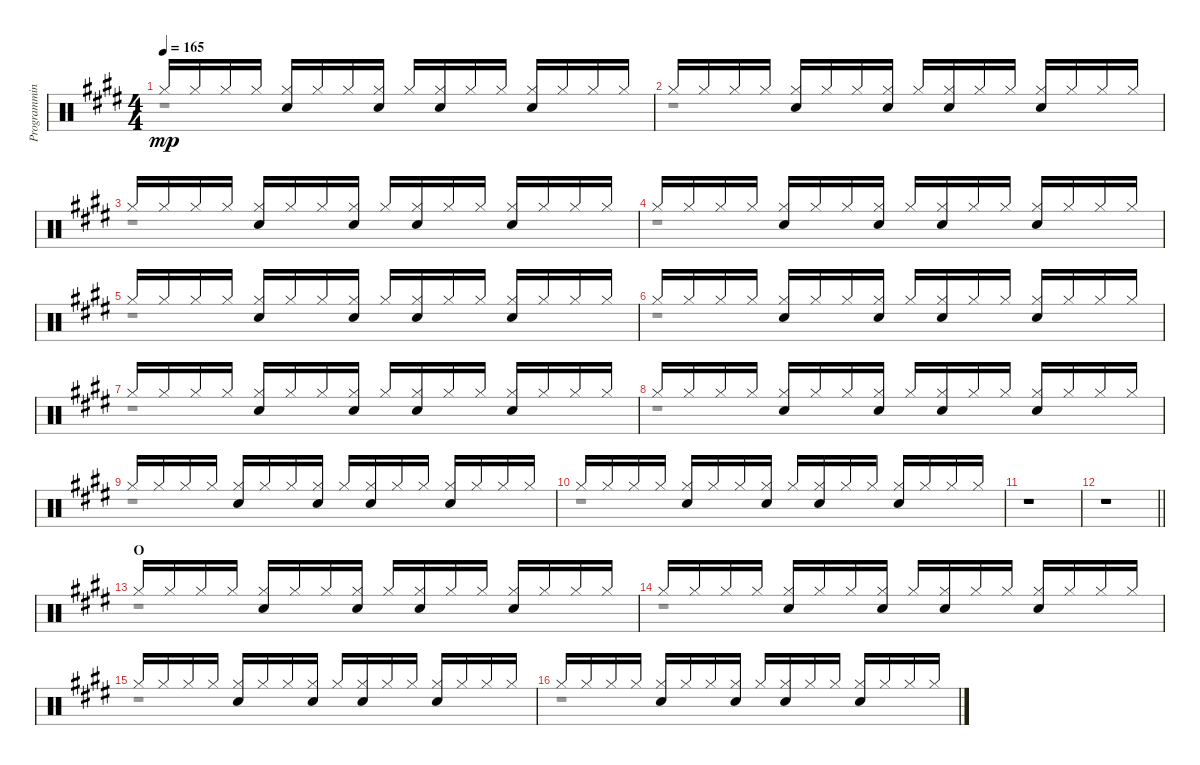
\track ("Programming I" "Programmin") {instrument percussion}
\staff {score}
\articulation defaults
\voice
\ts (4 4)
\tempo 165
\clef neutral
\ks e "Hi-Hat (closed)".16{dy mp} "Hi-Hat (closed)".16 "Hi-Hat (closed)".16 "Hi-Hat (closed)".16
("Hi-Hat (closed)" "Electric Snare (hit)").16 "Hi-Hat (closed)".16 "Hi-Hat (closed)".16 ("Hi-Hat (closed)" "Electric Snare (hit)").16 "Hi-Hat (closed)".16 ("Hi-Hat (closed)" "Electric Snare (hit)").16 "Hi-Hat (closed)".16 "Hi-Hat (closed)".16 ("Hi-Hat (closed)" "Electric Snare (hit)").16 "Hi-Hat (closed)".16 "Hi-Hat (closed)".16 "Hi-Hat (closed)".16 |
"Hi-Hat (closed)".16 "Hi-Hat (closed)".16 "Hi-Hat (closed)".16 "Hi-Hat (closed)".16 ("Hi-Hat (closed)" "Electric Snare (hit)").16 "Hi-Hat (closed)".16 "Hi-Hat (closed)".16 ("Hi-Hat (closed)" "Electric Snare (hit)").16 "Hi-Hat (closed)".16 ("Hi-Hat (closed)" "Electric Snare (hit)").16 "Hi-Hat (closed)".16 "Hi-Hat (closed)".16 ("Hi-Hat (closed)" "Electric Snare (hit)").16 "Hi-Hat (closed)".16 "Hi-Hat (closed)".16 "Hi-Hat (closed)".16 |
"Hi-Hat (closed)".16 "Hi-Hat (closed)".16 "Hi-Hat (closed)".16 "Hi-Hat (closed)".16 ("Hi-Hat (closed)" "Electric Snare (hit)").16 "Hi-Hat (closed)".16 "Hi-Hat (closed)".16 ("Hi-Hat (closed)" "Electric Snare (hit)").16 "Hi-Hat (closed)".16 ("Hi-Hat (closed)" "Electric Snare (hit)").16 "Hi-Hat (closed)".16 "Hi-Hat (closed)".16 ("Hi-Hat (closed)" "Electric Snare (hit)").16 "Hi-Hat (closed)".16 "Hi-Hat (closed)".16 "Hi-Hat (closed)".16 |
"Hi-Hat (closed)".16 "Hi-Hat (closed)".16 "Hi-Hat (closed)".16 "Hi-Hat (closed)".16 ("Hi-Hat (closed)" "Electric Snare (hit)").16 "Hi-Hat (closed)".16 "Hi-Hat (closed)".16 ("Hi-Hat (closed)" "Electric Snare (hit)").16 "Hi-Hat (closed)".16 ("Hi-Hat (closed)" "Electric Snare (hit)").16 "Hi-Hat (closed)".16 "Hi-Hat (closed)".16 ("Hi-Hat (closed)" "Electric Snare (hit)").16 "Hi-Hat (closed)".16 "Hi-Hat (closed)".16 "Hi-Hat (closed)".16 |
"Hi-Hat (closed)".16 "Hi-Hat (closed)".16 "Hi-Hat (closed)".16 "Hi-Hat (closed)".16 ("Hi-Hat (closed)" "Electric Snare (hit)").16 "Hi-Hat (closed)".16 "Hi-Hat (closed)".16 ("Hi-Hat (closed)" "Electric Snare (hit)").16 "Hi-Hat (closed)".16 ("Hi-Hat (closed)" "Electric Snare (hit)").16 "Hi-Hat (closed)".16 "Hi-Hat (closed)".16 ("Hi-Hat (closed)" "Electric Snare (hit)").16 "Hi-Hat (closed)".16 "Hi-Hat (closed)".16 "Hi-Hat (closed)".16 |
"Hi-Hat (closed)".16 "Hi-Hat (closed)".16 "Hi-Hat (closed)".16 "Hi-Hat (closed)".16 ("Hi-Hat (closed)" "Electric Snare (hit)").16 "Hi-Hat (closed)".16 "Hi-Hat (closed)".16 ("Hi-Hat (closed)" "Electric Snare (hit)").16 "Hi-Hat (closed)".16 ("Hi-Hat (closed)" "Electric Snare (hit)").16 "Hi-Hat (closed)".16 "Hi-Hat (closed)".16 ("Hi-Hat (closed)" "Electric Snare (hit)").16 "Hi-Hat (closed)".16 "Hi-Hat (closed)".16 "Hi-Hat (closed)".16 |
"Hi-Hat (closed)".16 "Hi-Hat (closed)".16 "Hi-Hat (closed)".16 "Hi-Hat (closed)".16 ("Hi-Hat (closed)" "Electric Snare (hit)").16 "Hi-Hat (closed)".16 "Hi-Hat (closed)".16 ("Hi-Hat (closed)" "Electric Snare (hit)").16 "Hi-Hat (closed)".16 ("Hi-Hat (closed)" "Electric Snare (hit)").16 "Hi-Hat (closed)".16 "Hi-Hat (closed)".16 ("Hi-Hat (closed)" "Electric Snare (hit)").16 "Hi-Hat (closed)".16 "Hi-Hat (closed)".16 "Hi-Hat (closed)".16 |
"Hi-Hat (closed)".16 "Hi-Hat (closed)".16 "Hi-Hat (closed)".16 "Hi-Hat (closed)".16 ("Hi-Hat (closed)" "Electric Snare (hit)").16 "Hi-Hat (closed)".16 "Hi-Hat (closed)".16 ("Hi-Hat (closed)" "Electric Snare (hit)").16 "Hi-Hat (closed)".16 ("Hi-Hat (closed)" "Electric Snare (hit)").16 "Hi-Hat (closed)".16 "Hi-Hat (closed)".16 ("Hi-Hat (closed)" "Electric Snare (hit)").16 "Hi-Hat (closed)".16 "Hi-Hat (closed)".16 "Hi-Hat (closed)".16 |
"Hi-Hat (closed)".16 "Hi-Hat (closed)".16 "Hi-Hat (closed)".16 "Hi-Hat (closed)".16 ("Hi-Hat (closed)" "Electric Snare (hit)").16 "Hi-Hat (closed)".16 "Hi-Hat (closed)".16 ("Hi-Hat (closed)" "Electric Snare (hit)").16 "Hi-Hat (closed)".16 ("Hi-Hat (closed)" "Electric Snare (hit)").16 "Hi-Hat (closed)".16 "Hi-Hat (closed)".16 ("Hi-Hat (closed)" "Electric Snare (hit)").16 "Hi-Hat (closed)".16 "Hi-Hat (closed)".16 "Hi-Hat (closed)".16 |
"Hi-Hat (closed)".16 "Hi-Hat (closed)".16 "Hi-Hat (closed)".16 "Hi-Hat (closed)".16 ("Hi-Hat (closed)" "Electric Snare (hit)").16 "Hi-Hat (closed)".16 "Hi-Hat (closed)".16 ("Hi-Hat (closed)" "Electric Snare (hit)").16 "Hi-Hat (closed)".16 ("Hi-Hat (closed)" "Electric Snare (hit)").16 "Hi-Hat (closed)".16 "Hi-Hat (closed)".16 ("Hi-Hat (closed)" "Electric Snare (hit)").16 "Hi-Hat (closed)".16 "Hi-Hat (closed)".16 "Hi-Hat (closed)".16 |
r.1 |
\barLineRight lightlight
r.1 |
\section ("" "O")
"Hi-Hat (closed)".16 "Hi-Hat (closed)".16 "Hi-Hat (closed)".16 "Hi-Hat (closed)".16 ("Hi-Hat (closed)" "Electric Snare (hit)").16 "Hi-Hat (closed)".16 "Hi-Hat (closed)".16 ("Hi-Hat (closed)" "Electric Snare (hit)").16 "Hi-Hat (closed)".16 ("Hi-Hat (closed)" "Electric Snare (hit)").16 "Hi-Hat (closed)".16 "Hi-Hat (closed)".16 ("Hi-Hat (closed)" "Electric Snare (hit)").16 "Hi-Hat (closed)".16 "Hi-Hat (closed)".16 "Hi-Hat (closed)".16 |
"Hi-Hat (closed)".16 "Hi-Hat (closed)".16 "Hi-Hat (closed)".16 "Hi-Hat (closed)".16 ("Hi-Hat (closed)" "Electric Snare (hit)").16 "Hi-Hat (closed)".16 "Hi-Hat (closed)".16 ("Hi-Hat (closed)" "Electric Snare (hit)").16 "Hi-Hat (closed)".16 ("Hi-Hat (closed)" "Electric Snare (hit)").16 "Hi-Hat (closed)".16 "Hi-Hat (closed)".16 ("Hi-Hat (closed)" "Electric Snare (hit)").16 "Hi-Hat (closed)".16 "Hi-Hat (closed)".16 "Hi-Hat (closed)".16 |
"Hi-Hat (closed)".16 "Hi-Hat (closed)".16 "Hi-Hat (closed)".16 "Hi-Hat (closed)".16 ("Hi-Hat (closed)" "Electric Snare (hit)").16 "Hi-Hat (closed)".16 "Hi-Hat (closed)".16 ("Hi-Hat (closed)" "Electric Snare (hit)").16 "Hi-Hat (closed)".16 ("Hi-Hat (closed)" "Electric Snare (hit)").16 "Hi-Hat (closed)".16 "Hi-Hat (closed)".16 ("Hi-Hat (closed)" "Electric Snare (hit)").16 "Hi-Hat (closed)".16 "Hi-Hat (closed)".16 "Hi-Hat (closed)".16 |
"Hi-Hat (closed)".16 "Hi-Hat (closed)".16 "Hi-Hat (closed)".16 "Hi-Hat (closed)".16 ("Hi-Hat (closed)" "Electric Snare (hit)").16 "Hi-Hat (closed)".16 "Hi-Hat (closed)".16 ("Hi-Hat (closed)" "Electric Snare (hit)").16 "Hi-Hat (closed)".16 ("Hi-Hat (closed)" "Electric Snare (hit)").16 "Hi-Hat (closed)".16 "Hi-Hat (closed)".16 ("Hi-Hat (closed)" "Electric Snare (hit)").16 "Hi-Hat (closed)".16 "Hi-Hat (closed)".16 "Hi-Hat (closed)".16
\voice
\clef neutral
\ottava regular
\simile none
\ks e
r.1{dy mp} |
r.1 |
r.1 |
r.1 |
r.1 |
r.1 |
r.1 |
r.1 |
r.1 |
r.1 |
r.1 |
\barLineRight lightlight
r.1 |
r.1 |
r.1 |
r.1 |
r.1
